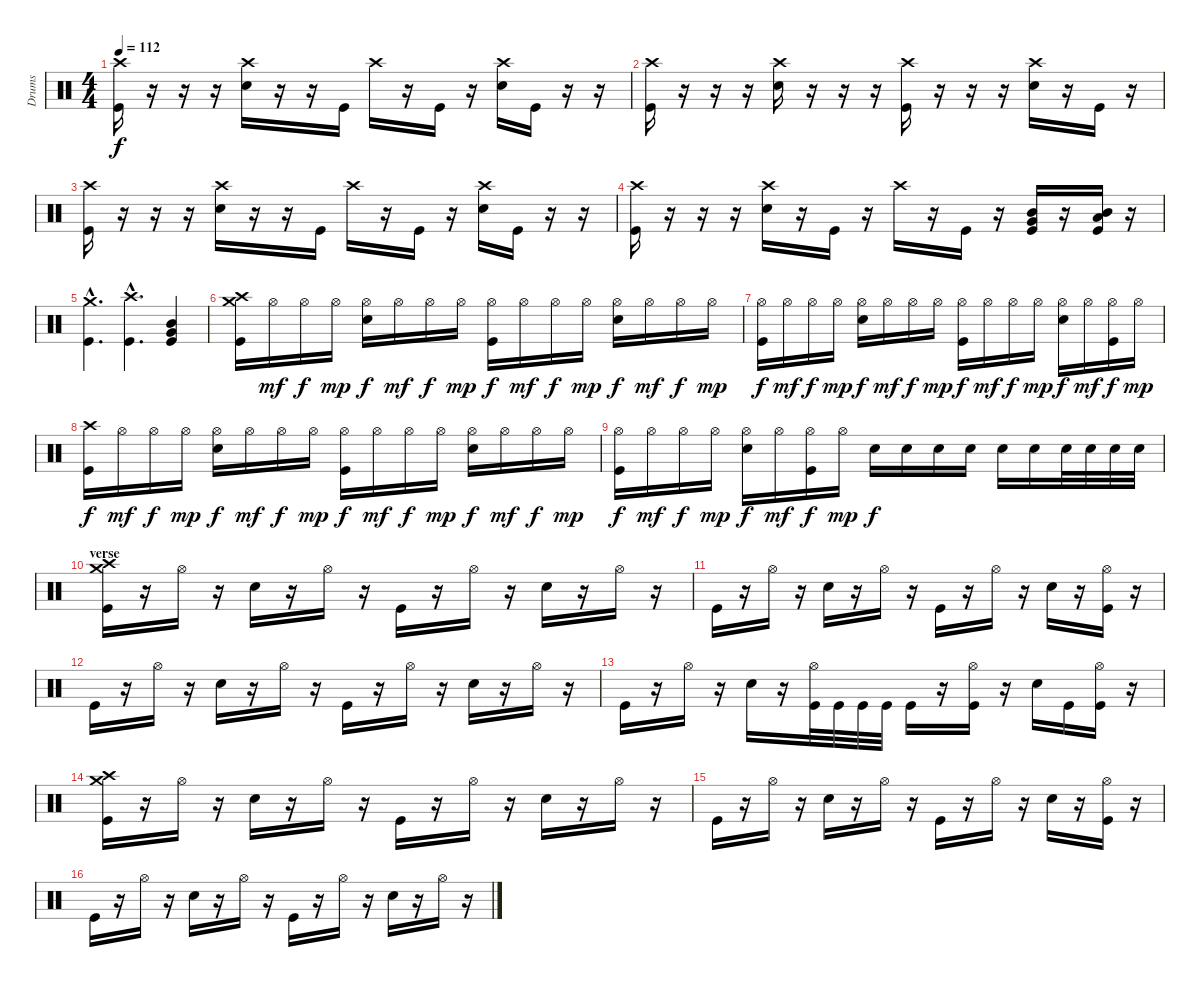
\track ("Drums" "Drums") {instrument percussion}
\staff {score}
\articulation defaults
\ts (4 4)
\tempo 112
\clef neutral
\ks c
("Crash high (hit)" "Kick (hit)").16{dy f} r.16 r.16 r.16 ("Crash high (hit)" "Snare (hit) 2").16 r.16 r.16 "Kick (hit)".16 "Crash high (hit)".16 r.16 "Kick (hit)".16 r.16 ("Crash high (hit)" "Snare (hit) 2").16 "Kick (hit)".16 r.16 r.16 |
("Crash high (hit)" "Kick (hit)").16 r.16 r.16 r.16 ("Crash high (hit)" "Snare (hit) 2").16 r.16 r.16 r.16 ("Crash high (hit)" "Kick (hit)").16 r.16 r.16 r.16 ("Crash high (hit)" "Snare (hit) 2").16 r.16 "Kick (hit)".16 r.16 |
("Crash high (hit)" "Kick (hit)").16 r.16 r.16 r.16 ("Crash high (hit)" "Snare (hit) 2").16 r.16 r.16 "Kick (hit)".16 "Crash high (hit)".16 r.16 "Kick (hit)".16 r.16 ("Crash high (hit)" "Snare (hit) 2").16 "Kick (hit)".16 r.16 r.16 |
("Crash high (hit)" "Kick (hit)").16 r.16 r.16 r.16 ("Crash high (hit)" "Snare (hit) 2").16 r.16 "Kick (hit)".16 r.16 "Crash high (hit)".16 r.16 "Kick (hit)".16 r.16 ("Mid Tom (hit)" "Very Low Tom (hit)" "Kick (hit)").16{bu 60} r.16 ("Mid Tom (hit)" "Low Floor Tom (hit)" "Kick (hit)").16{bu 60} r.16 |
("Crash medium (hit)"{hac} "Kick (hit)"{hac}).4{d} ("Crash high (hit)"{hac} "Kick (hit)"{hac}).4{d} ("Mid Tom (hit)" "Very Low Tom (hit)" "Kick (hit)").4{bu 60} |
\section ("" "")
("Crash high (hit)" "Crash medium (hit)" "Kick (hit)").16 "Hi-Hat (open)".16{dy mf} "Hi-Hat (open)".16{dy f} "Hi-Hat (open)".16{dy mp} ("Hi-Hat (open)" "Snare (hit) 2").16{dy f} "Hi-Hat (open)".16{dy mf} "Hi-Hat (open)".16{dy f} "Hi-Hat (open)".16{dy mp} ("Hi-Hat (open)" "Kick (hit)").16{dy f} "Hi-Hat (open)".16{dy mf} "Hi-Hat (open)".16{dy f} "Hi-Hat (open)".16{dy mp} ("Hi-Hat (open)" "Snare (hit) 2").16{dy f} "Hi-Hat (open)".16{dy mf} "Hi-Hat (open)".16{dy f} "Hi-Hat (open)".16{dy mp} |
("Hi-Hat (open)" "Kick (hit)").16{dy f} "Hi-Hat (open)".16{dy mf} "Hi-Hat (open)".16{dy f} "Hi-Hat (open)".16{dy mp} ("Hi-Hat (open)" "Snare (hit) 2").16{dy f} "Hi-Hat (open)".16{dy mf} "Hi-Hat (open)".16{dy f} "Hi-Hat (open)".16{dy mp} ("Hi-Hat (open)" "Kick (hit)").16{dy f} "Hi-Hat (open)".16{dy mf} "Hi-Hat (open)".16{dy f} "Hi-Hat (open)".16{dy mp} ("Hi-Hat (open)" "Snare (hit) 2").16{dy f} "Hi-Hat (open)".16{dy mf} ("Hi-Hat (open)" "Kick (hit)").16{dy f} "Hi-Hat (open)".16{dy mp} |
("Crash high (hit)" "Kick (hit)").16{dy f} "Hi-Hat (open)".16{dy mf} "Hi-Hat (open)".16{dy f} "Hi-Hat (open)".16{dy mp} ("Hi-Hat (open)" "Snare (hit) 2").16{dy f} "Hi-Hat (open)".16{dy mf} "Hi-Hat (open)".16{dy f} "Hi-Hat (open)".16{dy mp} ("Hi-Hat (open)" "Kick (hit)").16{dy f} "Hi-Hat (open)".16{dy mf} "Hi-Hat (open)".16{dy f} "Hi-Hat (open)".16{dy mp} ("Hi-Hat (open)" "Snare (hit) 2").16{dy f} "Hi-Hat (open)".16{dy mf} "Hi-Hat (open)".16{dy f} "Hi-Hat (open)".16{dy mp} |
("Hi-Hat (open)" "Kick (hit)").16{dy f} "Hi-Hat (open)".16{dy mf} "Hi-Hat (open)".16{dy f} "Hi-Hat (open)".16{dy mp} ("Hi-Hat (open)" "Snare (hit) 2").16{dy f} "Hi-Hat (open)".16{dy mf} ("Hi-Hat (open)" "Kick (hit)").16{dy f} "Hi-Hat (open)".16{dy mp} "Snare (hit) 2".16{dy f} "Snare (hit) 2".16 "Snare (hit) 2".16 "Snare (hit) 2".16 "Snare (hit) 2".16 "Snare (hit) 2".16 "Snare (hit) 2".32 "Snare (hit) 2".32 "Snare (hit) 2".32 "Snare (hit) 2".32 |
\section ("" "verse")
("Crash high (hit)" "Crash medium (hit)" "Kick (hit)").16 r.16 "Hi-Hat (open)".16 r.16 "Snare (hit) 2".16 r.16 "Hi-Hat (open)".16 r.16 "Kick (hit)".16 r.16 "Hi-Hat (open)".16 r.16 "Snare (hit) 2".16 r.16 "Hi-Hat (open)".16 r.16 |
"Kick (hit)".16 r.16 "Hi-Hat (open)".16 r.16 "Snare (hit) 2".16 r.16 "Hi-Hat (open)".16 r.16 "Kick (hit)".16 r.16 "Hi-Hat (open)".16 r.16 "Snare (hit) 2".16 r.16 ("Hi-Hat (open)" "Kick (hit)").16 r.16 |
"Kick (hit)".16 r.16 "Hi-Hat (open)".16 r.16 "Snare (hit) 2".16 r.16 "Hi-Hat (open)".16 r.16 "Kick (hit)".16 r.16 "Hi-Hat (open)".16 r.16 "Snare (hit) 2".16 r.16 "Hi-Hat (open)".16 r.16 |
"Kick (hit)".16 r.16 "Hi-Hat (open)".16 r.16 "Snare (hit) 2".16 r.16 ("Hi-Hat (open)" "Kick (hit)").32 "Kick (hit)".32 "Kick (hit)".32 "Kick (hit)".32 "Kick (hit)".16 r.16 ("Hi-Hat (open)" "Kick (hit)").16 r.16 "Snare (hit) 2".16 "Kick (hit)".16 ("Hi-Hat (open)" "Kick (hit)").16 r.16 |
("Crash high (hit)" "Crash medium (hit)" "Kick (hit)").16 r.16 "Hi-Hat (open)".16 r.16 "Snare (hit) 2".16 r.16 "Hi-Hat (open)".16 r.16 "Kick (hit)".16 r.16 "Hi-Hat (open)".16 r.16 "Snare (hit) 2".16 r.16 "Hi-Hat (open)".16 r.16 |
"Kick (hit)".16 r.16 "Hi-Hat (open)".16 r.16 "Snare (hit) 2".16 r.16 "Hi-Hat (open)".16 r.16 "Kick (hit)".16 r.16 "Hi-Hat (open)".16 r.16 "Snare (hit) 2".16 r.16 ("Hi-Hat (open)" "Kick (hit)").16 r.16 |
"Kick (hit)".16 r.16 "Hi-Hat (open)".16 r.16 "Snare (hit) 2".16 r.16 "Hi-Hat (open)".16 r.16 "Kick (hit)".16 r.16 "Hi-Hat (open)".16 r.16 "Snare (hit) 2".16 r.16 "Hi-Hat (open)".16 r.16
